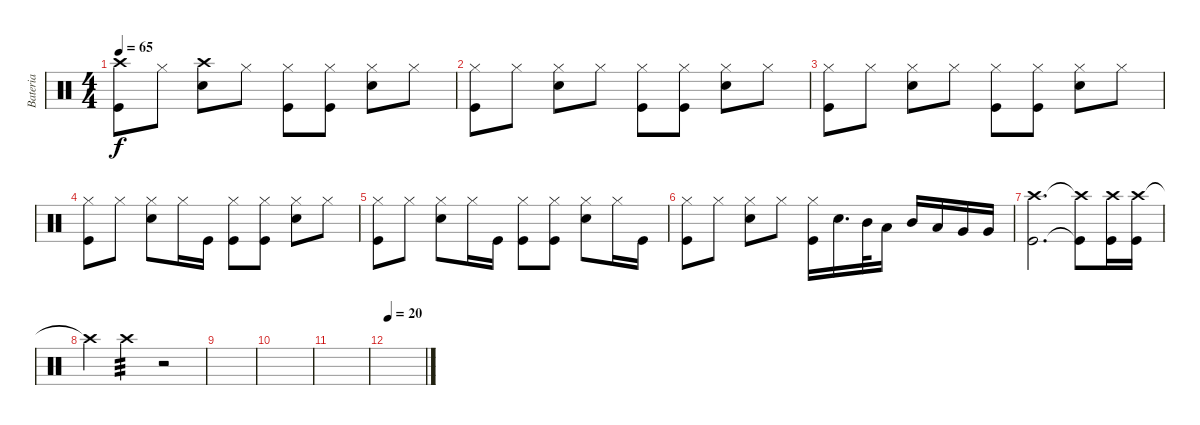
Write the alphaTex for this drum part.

\track ("Bateria" "Bateria") {instrument percussion}
\staff {score}
\articulation defaults
\ts (4 4)
\tempo 65
\clef neutral
\ks c
("Crash high (hit)" "Kick (hit)").8{dy f} "Hi-Hat (closed)".8 ("Crash high (hit)" "Snare (hit) 2").8 "Hi-Hat (closed)".8 ("Hi-Hat (closed)" "Kick (hit)").8 ("Hi-Hat (closed)" "Kick (hit)").8 ("Hi-Hat (closed)" "Snare (hit) 2").8 "Hi-Hat (closed)".8 |
("Hi-Hat (closed)" "Kick (hit)").8 "Hi-Hat (closed)".8 ("Hi-Hat (closed)" "Snare (hit) 2").8 "Hi-Hat (closed)".8 ("Hi-Hat (closed)" "Kick (hit)").8 ("Hi-Hat (closed)" "Kick (hit)").8 ("Hi-Hat (closed)" "Snare (hit) 2").8 "Hi-Hat (closed)".8 |
("Hi-Hat (closed)" "Kick (hit)").8 "Hi-Hat (closed)".8 ("Hi-Hat (closed)" "Snare (hit) 2").8 "Hi-Hat (closed)".8 ("Hi-Hat (closed)" "Kick (hit)").8 ("Hi-Hat (closed)" "Kick (hit)").8 ("Hi-Hat (closed)" "Snare (hit) 2").8 "Hi-Hat (closed)".8 |
("Hi-Hat (closed)" "Kick (hit)").8 "Hi-Hat (closed)".8 ("Hi-Hat (closed)" "Snare (hit) 2").8 "Hi-Hat (closed)".16 "Kick (hit)".16 ("Hi-Hat (closed)" "Kick (hit)").8 ("Hi-Hat (closed)" "Kick (hit)").8 ("Hi-Hat (closed)" "Snare (hit) 2").8 "Hi-Hat (closed)".8 |
("Hi-Hat (closed)" "Kick (hit)").8 "Hi-Hat (closed)".8 ("Hi-Hat (closed)" "Snare (hit) 2").8 "Hi-Hat (closed)".16 "Kick (hit)".16 ("Hi-Hat (closed)" "Kick (hit)").8 ("Hi-Hat (closed)" "Kick (hit)").8 ("Hi-Hat (closed)" "Snare (hit) 2").8 "Hi-Hat (closed)".16 "Kick (hit)".16 |
("Hi-Hat (closed)" "Kick (hit)").8 "Hi-Hat (closed)".8 ("Hi-Hat (closed)" "Snare (hit) 2").8 "Hi-Hat (closed)".8 ("Kick (hit)" "Hi-Hat (closed)").16 "Snare (hit) 2".16{d} "Mid Tom (hit)".32 "Low Tom (hit)".16 "Mid Tom (hit)".16 "Low Tom (hit)".16 "Very Low Tom (hit)".16 "Very Low Tom (hit)".16 |
("Kick (hit)" "Crash high (hit)").2{d} ("Kick (hit)"{t} "Crash high (hit)"{t}).8 ("Crash high (hit)" "Kick (hit)").16 ("Crash high (hit)" "Kick (hit)").16 |
"Crash high (hit)"{t}.4 "Crash high (hit)".4{tp 3} r.2 |
|
|
|
\tempo 20
